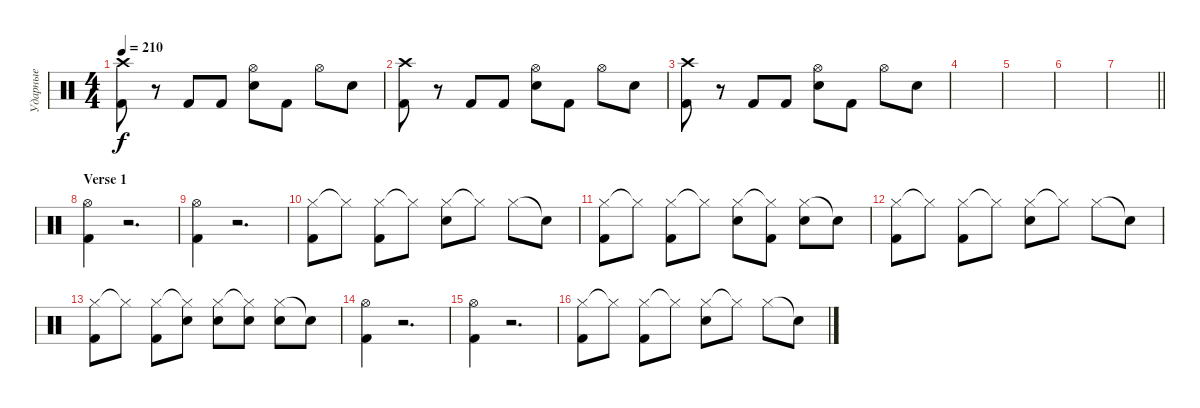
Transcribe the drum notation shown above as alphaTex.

\track ("Ударные" "Ударные") {instrument percussion}
\staff {score}
\articulation defaults
\ts (4 4)
\tempo 210
\clef neutral
\ks c
("Crash high (hit)" "Kick (hit) 2").8{dy f} r.8 "Kick (hit) 2".8 "Kick (hit) 2".8 ("Hi-Hat (open)" "Snare (hit) 2").8 "Kick (hit) 2".8 "Hi-Hat (open)".8 "Snare (hit) 2".8 |
("Crash high (hit)" "Kick (hit) 2").8 r.8 "Kick (hit) 2".8 "Kick (hit) 2".8 ("Hi-Hat (open)" "Snare (hit) 2").8 "Kick (hit) 2".8 "Hi-Hat (open)".8 "Snare (hit) 2".8 |
("Crash high (hit)" "Kick (hit) 2").8 r.8 "Kick (hit) 2".8 "Kick (hit) 2".8 ("Hi-Hat (open)" "Snare (hit) 2").8 "Kick (hit) 2".8 "Hi-Hat (open)".8 "Snare (hit) 2".8 |
|
|
|
\barLineRight lightlight
|
\section ("" "Verse 1")
("Hi-Hat (open)" "Kick (hit) 2").4 r.2{d} |
("Hi-Hat (open)" "Kick (hit) 2").4 r.2{d} |
("Hi-Hat (closed)" "Kick (hit) 2").8 "Hi-Hat (closed)"{t}.8 ("Hi-Hat (closed)" "Kick (hit) 2").8 "Hi-Hat (closed)"{t}.8 ("Hi-Hat (closed)" "Snare (hit) 2").8 "Hi-Hat (closed)"{t}.8 "Hi-Hat (closed)".8 "Snare (hit)"{t}.8 |
("Hi-Hat (closed)" "Kick (hit) 2").8 "Hi-Hat (closed)"{t}.8 ("Hi-Hat (closed)" "Kick (hit) 2").8 "Hi-Hat (closed)"{t}.8 ("Hi-Hat (closed)" "Snare (hit) 2").8 ("Hi-Hat (closed)"{t} "Kick (hit) 2").8 ("Hi-Hat (closed)" "Snare (hit) 2").8 "Snare (hit)"{t}.8 |
("Hi-Hat (closed)" "Kick (hit) 2").8 "Hi-Hat (closed)"{t}.8 ("Hi-Hat (closed)" "Kick (hit) 2").8 "Hi-Hat (closed)"{t}.8 ("Hi-Hat (closed)" "Snare (hit) 2").8 "Hi-Hat (closed)"{t}.8 "Hi-Hat (closed)".8 "Snare (hit)"{t}.8 |
("Hi-Hat (closed)" "Kick (hit) 2").8 "Hi-Hat (closed)"{t}.8 ("Hi-Hat (closed)" "Kick (hit) 2").8 ("Hi-Hat (closed)"{t} "Snare (hit) 2").8 ("Hi-Hat (closed)" "Snare (hit) 2").8 ("Hi-Hat (closed)"{t} "Snare (hit) 2").8 ("Hi-Hat (closed)" "Snare (hit) 2").8 "Snare (hit)"{t}.8 |
("Hi-Hat (open)" "Kick (hit) 2").4 r.2{d} |
("Hi-Hat (open)" "Kick (hit) 2").4 r.2{d} |
("Hi-Hat (closed)" "Kick (hit) 2").8 "Hi-Hat (closed)"{t}.8 ("Hi-Hat (closed)" "Kick (hit) 2").8 "Hi-Hat (closed)"{t}.8 ("Hi-Hat (closed)" "Snare (hit) 2").8 "Hi-Hat (closed)"{t}.8 "Hi-Hat (closed)".8 "Snare (hit)"{t}.8
